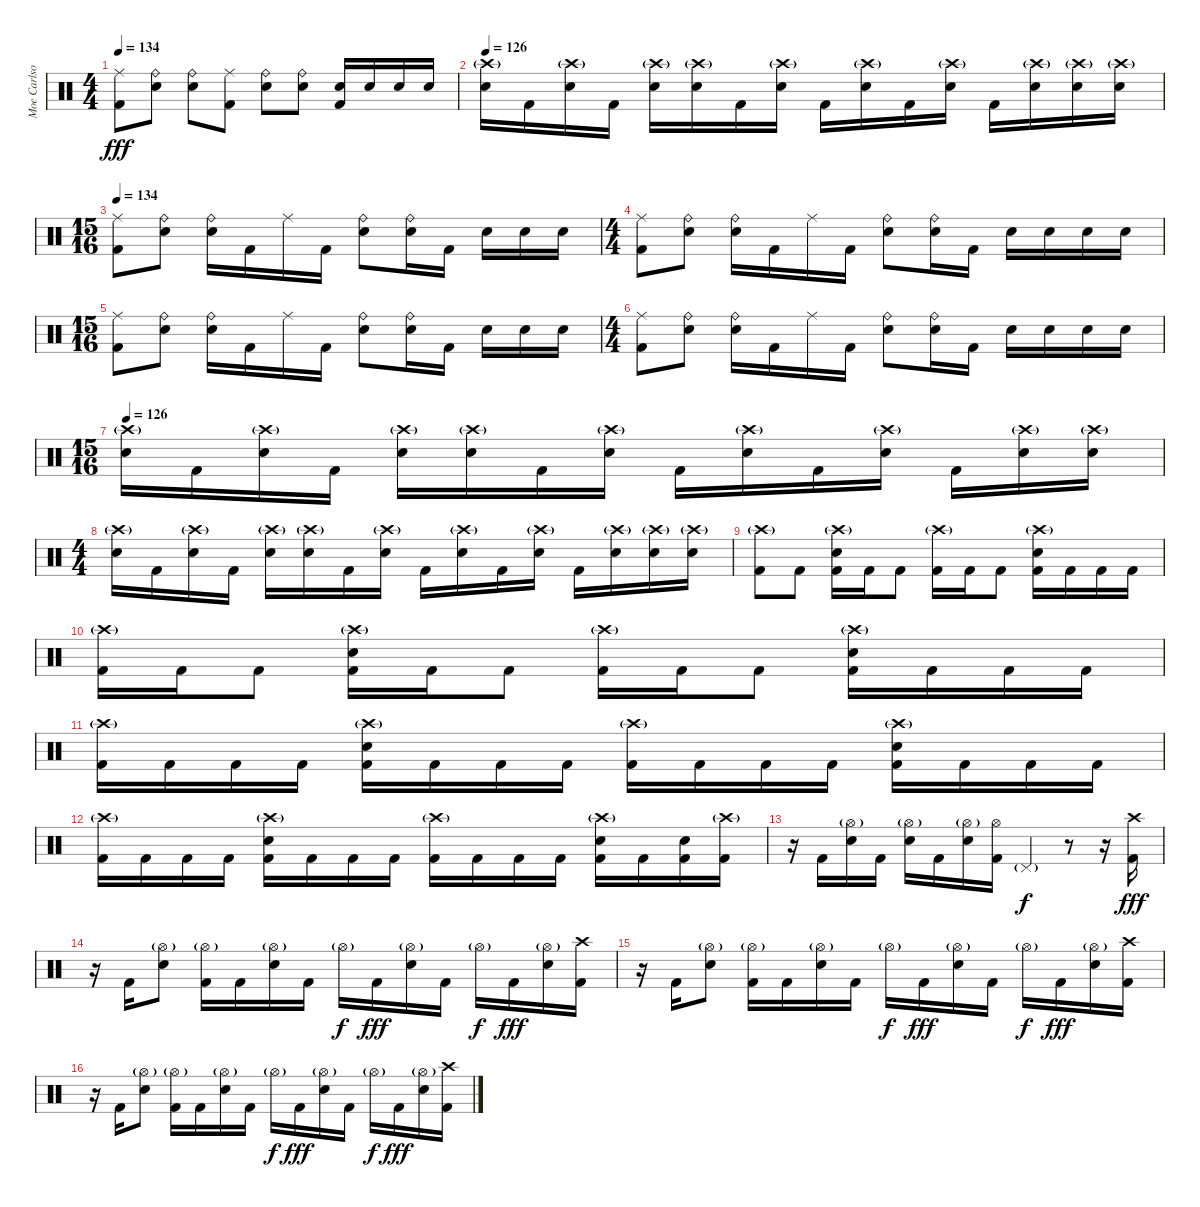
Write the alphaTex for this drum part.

\track ("Moe Carlson" "Moe Carlso") {instrument percussion}
\staff {score}
\articulation defaults
\ts (4 4)
\tempo 134
\clef neutral
\ks c
("Ride (middle)" "Kick (hit) 2").8{dy fff} ("Ride (bell)" "Electric Snare (hit)").8 ("Ride (bell)" "Electric Snare (hit)").8 ("Ride (middle)" "Kick (hit) 2").8 ("Ride (bell)" "Electric Snare (hit)").8 ("Ride (bell)" "Electric Snare (hit)").8 ("Electric Snare (hit)" "Kick (hit) 2").16 "Electric Snare (hit)".16 "Electric Snare (hit)".16 "Electric Snare (hit)".16 |
\tempo 126
("Crash high (hit)"{g} "Electric Snare (hit)").16 "Kick (hit) 2".16 ("Crash high (hit)"{g} "Electric Snare (hit)").16 "Kick (hit) 2".16 ("Crash high (hit)"{g} "Electric Snare (hit)").16 ("Crash high (hit)"{g} "Electric Snare (hit)").16 "Kick (hit) 2".16 ("Crash high (hit)"{g} "Electric Snare (hit)").16 "Kick (hit) 2".16 ("Crash high (hit)"{g} "Electric Snare (hit)").16 "Kick (hit) 2".16 ("Crash high (hit)"{g} "Electric Snare (hit)").16 "Kick (hit) 2".16 ("Crash high (hit)"{g} "Electric Snare (hit)").16 ("Crash high (hit)"{g} "Electric Snare (hit)").16 ("Crash high (hit)"{g} "Electric Snare (hit)").16 |
\ts (15 16)
\tempo 134
("Ride (middle)" "Kick (hit) 2").8 ("Ride (bell)" "Electric Snare (hit)").8 ("Ride (bell)" "Electric Snare (hit)").16 "Kick (hit) 2".16 "Ride (middle)".16 "Kick (hit) 2".16 ("Ride (bell)" "Electric Snare (hit)").8 ("Ride (bell)" "Electric Snare (hit)").16 "Kick (hit) 2".16 "Electric Snare (hit)".16 "Electric Snare (hit)".16 "Electric Snare (hit)".16 |
\ts (4 4)
("Ride (middle)" "Kick (hit) 2").8 ("Ride (bell)" "Electric Snare (hit)").8 ("Ride (bell)" "Electric Snare (hit)").16 "Kick (hit) 2".16 "Ride (middle)".16 "Kick (hit) 2".16 ("Ride (bell)" "Electric Snare (hit)").8 ("Ride (bell)" "Electric Snare (hit)").16 "Kick (hit) 2".16 "Electric Snare (hit)".16 "Electric Snare (hit)".16 "Electric Snare (hit)".16 "Electric Snare (hit)".16 |
\ts (15 16)
("Ride (middle)" "Kick (hit) 2").8 ("Ride (bell)" "Electric Snare (hit)").8 ("Ride (bell)" "Electric Snare (hit)").16 "Kick (hit) 2".16 "Ride (middle)".16 "Kick (hit) 2".16 ("Ride (bell)" "Electric Snare (hit)").8 ("Ride (bell)" "Electric Snare (hit)").16 "Kick (hit) 2".16 "Electric Snare (hit)".16 "Electric Snare (hit)".16 "Electric Snare (hit)".16 |
\ts (4 4)
("Ride (middle)" "Kick (hit) 2").8 ("Ride (bell)" "Electric Snare (hit)").8 ("Ride (bell)" "Electric Snare (hit)").16 "Kick (hit) 2".16 "Ride (middle)".16 "Kick (hit) 2".16 ("Ride (bell)" "Electric Snare (hit)").8 ("Ride (bell)" "Electric Snare (hit)").16 "Kick (hit) 2".16 "Electric Snare (hit)".16 "Electric Snare (hit)".16 "Electric Snare (hit)".16 "Electric Snare (hit)".16 |
\ts (15 16)
\tempo 126
("Crash high (hit)"{g} "Electric Snare (hit)").16 "Kick (hit) 2".16 ("Crash high (hit)"{g} "Electric Snare (hit)").16 "Kick (hit) 2".16 ("Crash high (hit)"{g} "Electric Snare (hit)").16 ("Crash high (hit)"{g} "Electric Snare (hit)").16 "Kick (hit) 2".16 ("Crash high (hit)"{g} "Electric Snare (hit)").16 "Kick (hit) 2".16 ("Crash high (hit)"{g} "Electric Snare (hit)").16 "Kick (hit) 2".16 ("Crash high (hit)"{g} "Electric Snare (hit)").16 "Kick (hit) 2".16 ("Crash high (hit)"{g} "Electric Snare (hit)").16 ("Crash high (hit)"{g} "Electric Snare (hit)").16 |
\ts (4 4)
("Crash high (hit)"{g} "Electric Snare (hit)").16 "Kick (hit) 2".16 ("Crash high (hit)"{g} "Electric Snare (hit)").16 "Kick (hit) 2".16 ("Crash high (hit)"{g} "Electric Snare (hit)").16 ("Crash high (hit)"{g} "Electric Snare (hit)").16 "Kick (hit) 2".16 ("Crash high (hit)"{g} "Electric Snare (hit)").16 "Kick (hit) 2".16 ("Crash high (hit)"{g} "Electric Snare (hit)").16 "Kick (hit) 2".16 ("Crash high (hit)"{g} "Electric Snare (hit)").16 "Kick (hit) 2".16 ("Crash high (hit)"{g} "Electric Snare (hit)").16 ("Crash high (hit)"{g} "Electric Snare (hit)").16 ("Crash high (hit)"{g} "Electric Snare (hit)").16 |
("Crash high (hit)"{g} "Kick (hit) 2").8 "Kick (hit) 2".8 ("Crash high (hit)"{g} "Electric Snare (hit)" "Kick (hit) 2").16 "Kick (hit) 2".16 "Kick (hit) 2".8 ("Crash high (hit)"{g} "Kick (hit) 2").16 "Kick (hit) 2".16 "Kick (hit) 2".8 ("Crash high (hit)"{g} "Electric Snare (hit)" "Kick (hit) 2").16 "Kick (hit) 2".16 "Kick (hit) 2".16 "Kick (hit) 2".16 |
("Crash high (hit)"{g} "Kick (hit) 2").16 "Kick (hit) 2".16 "Kick (hit) 2".8 ("Crash high (hit)"{g} "Electric Snare (hit)" "Kick (hit) 2").16 "Kick (hit) 2".16 "Kick (hit) 2".8 ("Crash high (hit)"{g} "Kick (hit) 2").16 "Kick (hit) 2".16 "Kick (hit) 2".8 ("Crash high (hit)"{g} "Electric Snare (hit)" "Kick (hit) 2").16 "Kick (hit) 2".16 "Kick (hit) 2".16 "Kick (hit) 2".16 |
("Crash high (hit)"{g} "Kick (hit) 2").16 "Kick (hit) 2".16 "Kick (hit) 2".16 "Kick (hit) 2".16 ("Crash high (hit)"{g} "Electric Snare (hit)" "Kick (hit) 2").16 "Kick (hit) 2".16 "Kick (hit) 2".16 "Kick (hit) 2".16 ("Crash high (hit)"{g} "Kick (hit) 2").16 "Kick (hit) 2".16 "Kick (hit) 2".16 "Kick (hit) 2".16 ("Crash high (hit)"{g} "Electric Snare (hit)" "Kick (hit) 2").16 "Kick (hit) 2".16 "Kick (hit) 2".16 "Kick (hit) 2".16 |
("Crash high (hit)"{g} "Kick (hit) 2").16 "Kick (hit) 2".16 "Kick (hit) 2".16 "Kick (hit) 2".16 ("Crash high (hit)"{g} "Electric Snare (hit)" "Kick (hit) 2").16 "Kick (hit) 2".16 "Kick (hit) 2".16 "Kick (hit) 2".16 ("Crash high (hit)"{g} "Kick (hit) 2").16 "Kick (hit) 2".16 "Kick (hit) 2".16 "Kick (hit) 2".16 ("Crash high (hit)"{g} "Electric Snare (hit)" "Kick (hit) 2").16 "Kick (hit) 2".16 ("Electric Snare (hit)" "Kick (hit) 2").16 ("Crash high (hit)"{g} "Kick (hit) 2").16 |
r.16 "Kick (hit) 2".16 ("Hi-Hat (open)"{g} "Electric Snare (hit)").16 "Kick (hit) 2".16 ("Hi-Hat (open)"{g} "Electric Snare (hit)").16 "Kick (hit) 2".16 ("Hi-Hat (open)"{g} "Electric Snare (hit)").16 ("Hi-Hat (open)" "Kick (hit) 2").16 "Pedal Hi-Hat (hit)"{g}.4{dy f} r.8 r.16 ("Crash high (hit)" "Kick (hit) 2").16{dy fff} |
r.16 "Kick (hit) 2".16 ("Hi-Hat (open)"{g} "Electric Snare (hit)").8 ("Hi-Hat (open)"{g} "Kick (hit) 2").16 "Kick (hit) 2".16 ("Hi-Hat (open)"{g} "Electric Snare (hit)").16 "Kick (hit) 2".16 "Hi-Hat (open)"{g}.16{dy f} "Kick (hit) 2".16{dy fff} ("Hi-Hat (open)"{g} "Electric Snare (hit)").16 "Kick (hit) 2".16 "Hi-Hat (open)"{g}.16{dy f} "Kick (hit) 2".16{dy fff} ("Hi-Hat (open)"{g} "Electric Snare (hit)").16 ("Crash high (hit)" "Kick (hit) 2").16 |
r.16 "Kick (hit) 2".16 ("Hi-Hat (open)"{g} "Electric Snare (hit)").8 ("Hi-Hat (open)"{g} "Kick (hit) 2").16 "Kick (hit) 2".16 ("Hi-Hat (open)"{g} "Electric Snare (hit)").16 "Kick (hit) 2".16 "Hi-Hat (open)"{g}.16{dy f} "Kick (hit) 2".16{dy fff} ("Hi-Hat (open)"{g} "Electric Snare (hit)").16 "Kick (hit) 2".16 "Hi-Hat (open)"{g}.16{dy f} "Kick (hit) 2".16{dy fff} ("Hi-Hat (open)"{g} "Electric Snare (hit)").16 ("Crash high (hit)" "Kick (hit) 2").16 |
r.16 "Kick (hit) 2".16 ("Hi-Hat (open)"{g} "Electric Snare (hit)").8 ("Hi-Hat (open)"{g} "Kick (hit) 2").16 "Kick (hit) 2".16 ("Hi-Hat (open)"{g} "Electric Snare (hit)").16 "Kick (hit) 2".16 "Hi-Hat (open)"{g}.16{dy f} "Kick (hit) 2".16{dy fff} ("Hi-Hat (open)"{g} "Electric Snare (hit)").16 "Kick (hit) 2".16 "Hi-Hat (open)"{g}.16{dy f} "Kick (hit) 2".16{dy fff} ("Hi-Hat (open)"{g} "Electric Snare (hit)").16 ("Crash high (hit)" "Kick (hit) 2").16
